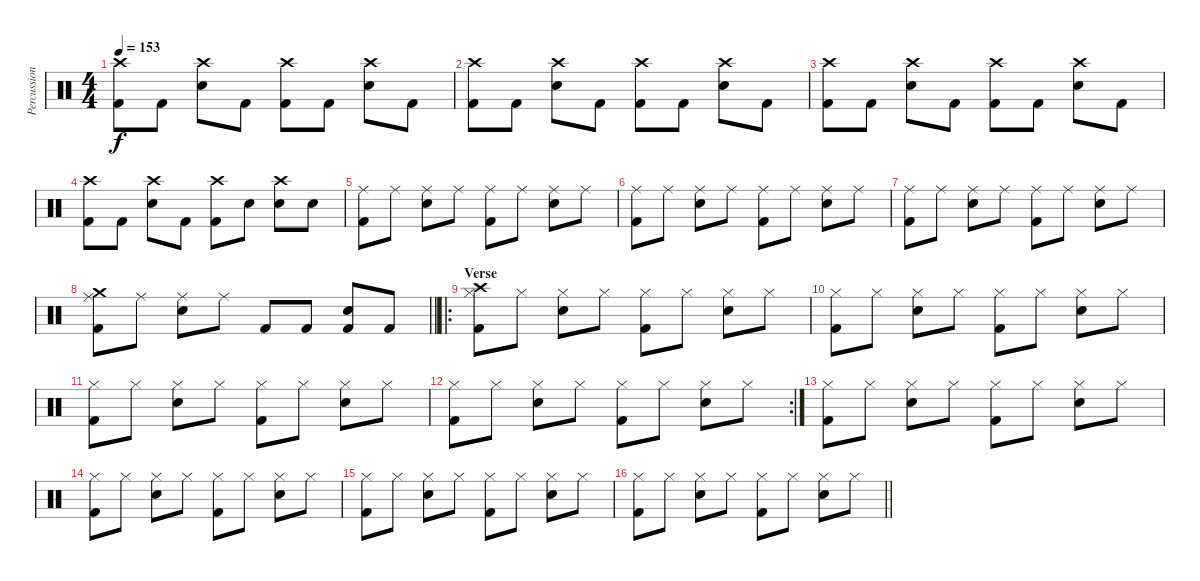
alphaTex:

\track ("Percussion" "Percussion") {instrument percussion}
\staff {score}
\articulation defaults
\ts (4 4)
\tempo 153
\clef neutral
\ks c
("Crash high (hit)" "Kick (hit) 2").8{dy f} "Kick (hit) 2".8 ("Crash high (hit)" "Snare (hit) 2").8 "Kick (hit) 2".8 ("Crash high (hit)" "Kick (hit) 2").8 "Kick (hit) 2".8 ("Crash high (hit)" "Snare (hit) 2").8 "Kick (hit) 2".8 |
("Crash high (hit)" "Kick (hit) 2").8 "Kick (hit) 2".8 ("Crash high (hit)" "Snare (hit) 2").8 "Kick (hit) 2".8 ("Crash high (hit)" "Kick (hit) 2").8 "Kick (hit) 2".8 ("Crash high (hit)" "Snare (hit) 2").8 "Kick (hit) 2".8 |
("Crash high (hit)" "Kick (hit) 2").8 "Kick (hit) 2".8 ("Crash high (hit)" "Snare (hit) 2").8 "Kick (hit) 2".8 ("Crash high (hit)" "Kick (hit) 2").8 "Kick (hit) 2".8 ("Crash high (hit)" "Snare (hit) 2").8 "Kick (hit) 2".8 |
("Crash high (hit)" "Kick (hit) 2").8 "Kick (hit) 2".8 ("Crash high (hit)" "Snare (hit) 2").8 "Kick (hit) 2".8 ("Crash high (hit)" "Kick (hit) 2").8 "Snare (hit) 2".8 ("Crash high (hit)" "Snare (hit) 2").8 "Snare (hit) 2".8 |
("Ride (middle)" "Kick (hit) 2").8 "Ride (middle)".8 ("Ride (middle)" "Snare (hit) 2").8 "Ride (middle)".8 ("Ride (middle)" "Kick (hit) 2").8 "Ride (middle)".8 ("Ride (middle)" "Snare (hit) 2").8 "Ride (middle)".8 |
("Ride (middle)" "Kick (hit) 2").8 "Ride (middle)".8 ("Ride (middle)" "Snare (hit) 2").8 "Ride (middle)".8 ("Ride (middle)" "Kick (hit) 2").8 "Ride (middle)".8 ("Ride (middle)" "Snare (hit) 2").8 "Ride (middle)".8 |
("Ride (middle)" "Kick (hit) 2").8 "Ride (middle)".8 ("Ride (middle)" "Snare (hit) 2").8 "Ride (middle)".8 ("Ride (middle)" "Kick (hit) 2").8 "Ride (middle)".8 ("Ride (middle)" "Snare (hit) 2").8 "Ride (middle)".8 |
\barLineRight lightlight
("Ride (middle)" "Crash medium (hit)" "Kick (hit) 2").8 "Ride (middle)".8 ("Ride (middle)" "Snare (hit) 2").8 "Ride (middle)".8 "Kick (hit) 2".8 "Kick (hit) 2".8 ("Snare (hit) 2" "Kick (hit) 2").8 "Kick (hit) 2".8 |
\ro
\section ("" "Verse")
("Hi-Hat (closed)" "Crash high (hit)" "Kick (hit) 2").8 "Hi-Hat (closed)".8 ("Hi-Hat (closed)" "Snare (hit) 2").8 "Hi-Hat (closed)".8 ("Hi-Hat (closed)" "Kick (hit) 2").8 "Hi-Hat (closed)".8 ("Hi-Hat (closed)" "Snare (hit) 2").8 "Hi-Hat (closed)".8 |
("Hi-Hat (closed)" "Kick (hit) 2").8 "Hi-Hat (closed)".8 ("Hi-Hat (closed)" "Snare (hit) 2").8 "Hi-Hat (closed)".8 ("Hi-Hat (closed)" "Kick (hit) 2").8 "Hi-Hat (closed)".8 ("Hi-Hat (closed)" "Snare (hit) 2").8 "Hi-Hat (closed)".8 |
("Hi-Hat (closed)" "Kick (hit) 2").8 "Hi-Hat (closed)".8 ("Hi-Hat (closed)" "Snare (hit) 2").8 "Hi-Hat (closed)".8 ("Hi-Hat (closed)" "Kick (hit) 2").8 "Hi-Hat (closed)".8 ("Hi-Hat (closed)" "Snare (hit) 2").8 "Hi-Hat (closed)".8 |
\rc 2
("Hi-Hat (closed)" "Kick (hit) 2").8 "Hi-Hat (closed)".8 ("Hi-Hat (closed)" "Snare (hit) 2").8 "Hi-Hat (closed)".8 ("Hi-Hat (closed)" "Kick (hit) 2").8 "Hi-Hat (closed)".8 ("Hi-Hat (closed)" "Snare (hit) 2").8 "Hi-Hat (closed)".8 |
("Hi-Hat (closed)" "Kick (hit) 2").8 "Hi-Hat (closed)".8 ("Hi-Hat (closed)" "Snare (hit) 2").8 "Hi-Hat (closed)".8 ("Hi-Hat (closed)" "Kick (hit) 2").8 "Hi-Hat (closed)".8 ("Hi-Hat (closed)" "Snare (hit) 2").8 "Hi-Hat (closed)".8 |
("Hi-Hat (closed)" "Kick (hit) 2").8 "Hi-Hat (closed)".8 ("Hi-Hat (closed)" "Snare (hit) 2").8 "Hi-Hat (closed)".8 ("Hi-Hat (closed)" "Kick (hit) 2").8 "Hi-Hat (closed)".8 ("Hi-Hat (closed)" "Snare (hit) 2").8 "Hi-Hat (closed)".8 |
("Hi-Hat (closed)" "Kick (hit) 2").8 "Hi-Hat (closed)".8 ("Hi-Hat (closed)" "Snare (hit) 2").8 "Hi-Hat (closed)".8 ("Hi-Hat (closed)" "Kick (hit) 2").8 "Hi-Hat (closed)".8 ("Hi-Hat (closed)" "Snare (hit) 2").8 "Hi-Hat (closed)".8 |
\barLineRight lightlight
("Hi-Hat (closed)" "Kick (hit) 2").8 "Hi-Hat (closed)".8 ("Hi-Hat (closed)" "Snare (hit) 2").8 "Hi-Hat (closed)".8 ("Hi-Hat (closed)" "Kick (hit) 2").8 "Hi-Hat (closed)".8 ("Hi-Hat (closed)" "Snare (hit) 2").8 "Hi-Hat (closed)".8
